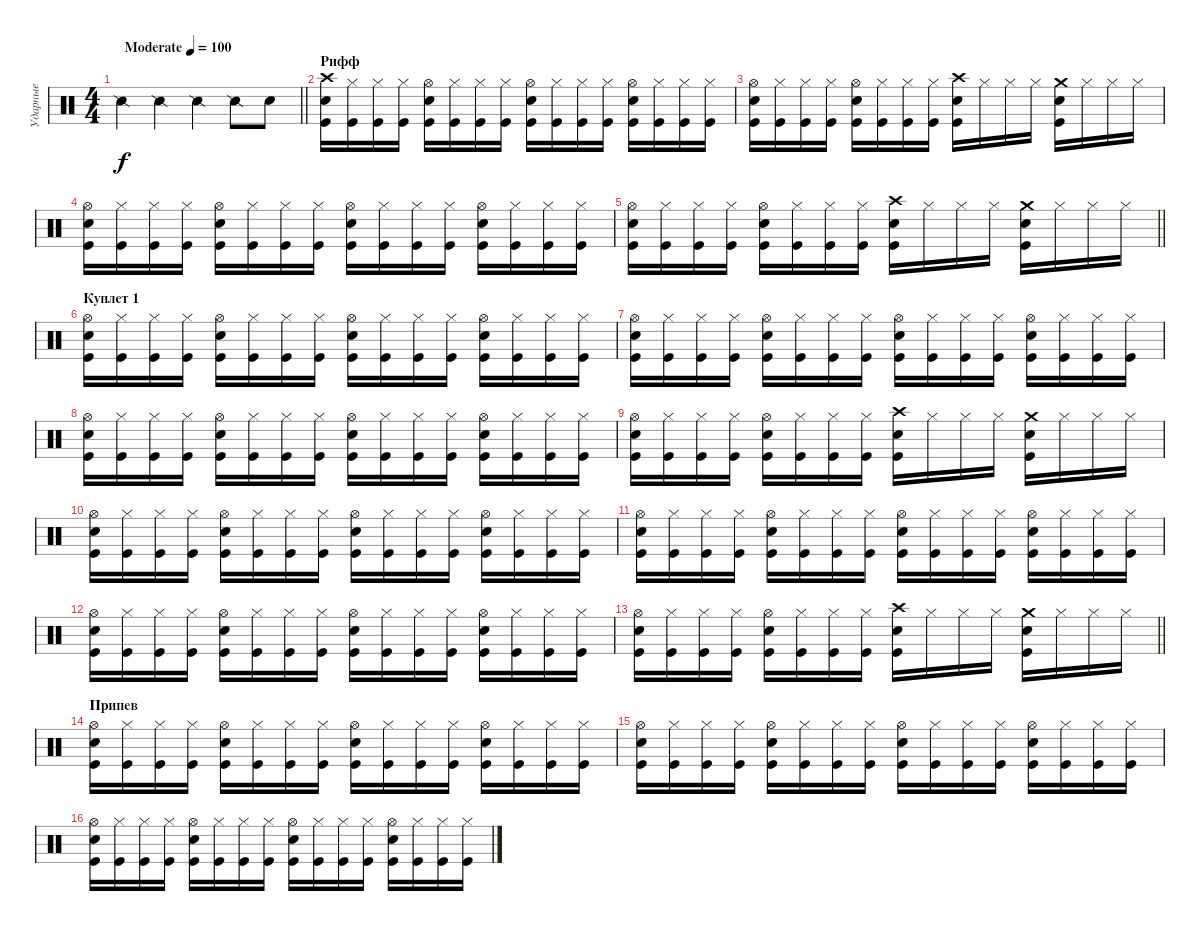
\track ("Ударные" "Ударные") {instrument percussion}
\staff {score}
\articulation defaults
\ts (4 4)
\tempo (100 "Moderate")
\clef neutral
\barLineRight lightlight
\ks c "Snare (side stick) 2".4{dy f} "Snare (side stick) 2".4 "Snare (side stick) 2".4 "Snare (side stick) 2".8 "Snare (hit) 2".8
|
\section ("" "Рифф")
("Kick (hit)" "Snare (hit) 2" "Crash high (hit)").16 ("Kick (hit)" "Hi-Hat (closed)").16 ("Kick (hit)" "Hi-Hat (closed)").16 ("Kick (hit)" "Hi-Hat (closed)").16 ("Kick (hit)" "Snare (hit) 2" "Hi-Hat (open)").16 ("Kick (hit)" "Hi-Hat (closed)").16 ("Kick (hit)" "Hi-Hat (closed)").16 ("Kick (hit)" "Hi-Hat (closed)").16 ("Kick (hit)" "Snare (hit) 2" "Hi-Hat (open)").16 ("Kick (hit)" "Hi-Hat (closed)").16 ("Kick (hit)" "Hi-Hat (closed)").16 ("Kick (hit)" "Hi-Hat (closed)").16 ("Kick (hit)" "Snare (hit) 2" "Hi-Hat (open)").16 ("Kick (hit)" "Hi-Hat (closed)").16 ("Kick (hit)" "Hi-Hat (closed)").16 ("Kick (hit)" "Hi-Hat (closed)").16 |
("Kick (hit)" "Snare (hit) 2" "Hi-Hat (open)").16 ("Kick (hit)" "Hi-Hat (closed)").16 ("Kick (hit)" "Hi-Hat (closed)").16 ("Kick (hit)" "Hi-Hat (closed)").16 ("Kick (hit)" "Snare (hit) 2" "Hi-Hat (open)").16 ("Kick (hit)" "Hi-Hat (closed)").16 ("Kick (hit)" "Hi-Hat (closed)").16 ("Kick (hit)" "Hi-Hat (closed)").16 ("Crash high (hit)" "Kick (hit)" "Snare (hit) 2").16 "Hi-Hat (closed)".16 "Hi-Hat (closed)".16 "Hi-Hat (closed)".16 ("Crash medium (hit)" "Kick (hit)" "Snare (hit) 2").16 "Hi-Hat (closed)".16 "Hi-Hat (closed)".16 "Hi-Hat (closed)".16 |
("Kick (hit)" "Snare (hit) 2" "Hi-Hat (open)").16 ("Kick (hit)" "Hi-Hat (closed)").16 ("Kick (hit)" "Hi-Hat (closed)").16 ("Kick (hit)" "Hi-Hat (closed)").16 ("Kick (hit)" "Snare (hit) 2" "Hi-Hat (open)").16 ("Kick (hit)" "Hi-Hat (closed)").16 ("Kick (hit)" "Hi-Hat (closed)").16 ("Kick (hit)" "Hi-Hat (closed)").16 ("Kick (hit)" "Snare (hit) 2" "Hi-Hat (open)").16 ("Kick (hit)" "Hi-Hat (closed)").16 ("Kick (hit)" "Hi-Hat (closed)").16 ("Kick (hit)" "Hi-Hat (closed)").16 ("Kick (hit)" "Snare (hit) 2" "Hi-Hat (open)").16 ("Kick (hit)" "Hi-Hat (closed)").16 ("Kick (hit)" "Hi-Hat (closed)").16 ("Kick (hit)" "Hi-Hat (closed)").16 |
\barLineRight lightlight
("Kick (hit)" "Snare (hit) 2" "Hi-Hat (open)").16 ("Kick (hit)" "Hi-Hat (closed)").16 ("Kick (hit)" "Hi-Hat (closed)").16 ("Kick (hit)" "Hi-Hat (closed)").16 ("Kick (hit)" "Snare (hit) 2" "Hi-Hat (open)").16 ("Kick (hit)" "Hi-Hat (closed)").16 ("Kick (hit)" "Hi-Hat (closed)").16 ("Kick (hit)" "Hi-Hat (closed)").16 ("Crash high (hit)" "Kick (hit)" "Snare (hit) 2").16 "Hi-Hat (closed)".16 "Hi-Hat (closed)".16 "Hi-Hat (closed)".16 ("Crash medium (hit)" "Kick (hit)" "Snare (hit) 2").16 "Hi-Hat (closed)".16 "Hi-Hat (closed)".16 "Hi-Hat (closed)".16 |
\section ("" "Куплет 1")
("Kick (hit)" "Snare (hit) 2" "Hi-Hat (open)").16 ("Kick (hit)" "Hi-Hat (closed)").16 ("Kick (hit)" "Hi-Hat (closed)").16 ("Kick (hit)" "Hi-Hat (closed)").16 ("Kick (hit)" "Snare (hit) 2" "Hi-Hat (open)").16 ("Kick (hit)" "Hi-Hat (closed)").16 ("Kick (hit)" "Hi-Hat (closed)").16 ("Kick (hit)" "Hi-Hat (closed)").16 ("Kick (hit)" "Snare (hit) 2" "Hi-Hat (open)").16 ("Kick (hit)" "Hi-Hat (closed)").16 ("Kick (hit)" "Hi-Hat (closed)").16 ("Kick (hit)" "Hi-Hat (closed)").16 ("Kick (hit)" "Snare (hit) 2" "Hi-Hat (open)").16 ("Kick (hit)" "Hi-Hat (closed)").16 ("Kick (hit)" "Hi-Hat (closed)").16 ("Kick (hit)" "Hi-Hat (closed)").16 |
("Kick (hit)" "Snare (hit) 2" "Hi-Hat (open)").16 ("Kick (hit)" "Hi-Hat (closed)").16 ("Kick (hit)" "Hi-Hat (closed)").16 ("Kick (hit)" "Hi-Hat (closed)").16 ("Kick (hit)" "Snare (hit) 2" "Hi-Hat (open)").16 ("Kick (hit)" "Hi-Hat (closed)").16 ("Kick (hit)" "Hi-Hat (closed)").16 ("Kick (hit)" "Hi-Hat (closed)").16 ("Kick (hit)" "Snare (hit) 2" "Hi-Hat (open)").16 ("Kick (hit)" "Hi-Hat (closed)").16 ("Kick (hit)" "Hi-Hat (closed)").16 ("Kick (hit)" "Hi-Hat (closed)").16 ("Kick (hit)" "Snare (hit) 2" "Hi-Hat (open)").16 ("Kick (hit)" "Hi-Hat (closed)").16 ("Kick (hit)" "Hi-Hat (closed)").16 ("Kick (hit)" "Hi-Hat (closed)").16 |
("Kick (hit)" "Snare (hit) 2" "Hi-Hat (open)").16 ("Kick (hit)" "Hi-Hat (closed)").16 ("Kick (hit)" "Hi-Hat (closed)").16 ("Kick (hit)" "Hi-Hat (closed)").16 ("Kick (hit)" "Snare (hit) 2" "Hi-Hat (open)").16 ("Kick (hit)" "Hi-Hat (closed)").16 ("Kick (hit)" "Hi-Hat (closed)").16 ("Kick (hit)" "Hi-Hat (closed)").16 ("Kick (hit)" "Snare (hit) 2" "Hi-Hat (open)").16 ("Kick (hit)" "Hi-Hat (closed)").16 ("Kick (hit)" "Hi-Hat (closed)").16 ("Kick (hit)" "Hi-Hat (closed)").16 ("Kick (hit)" "Snare (hit) 2" "Hi-Hat (open)").16 ("Kick (hit)" "Hi-Hat (closed)").16 ("Kick (hit)" "Hi-Hat (closed)").16 ("Kick (hit)" "Hi-Hat (closed)").16 |
("Kick (hit)" "Snare (hit) 2" "Hi-Hat (open)").16 ("Kick (hit)" "Hi-Hat (closed)").16 ("Kick (hit)" "Hi-Hat (closed)").16 ("Kick (hit)" "Hi-Hat (closed)").16 ("Kick (hit)" "Snare (hit) 2" "Hi-Hat (open)").16 ("Kick (hit)" "Hi-Hat (closed)").16 ("Kick (hit)" "Hi-Hat (closed)").16 ("Kick (hit)" "Hi-Hat (closed)").16 ("Crash high (hit)" "Kick (hit)" "Snare (hit) 2").16 "Hi-Hat (closed)".16 "Hi-Hat (closed)".16 "Hi-Hat (closed)".16 ("Crash medium (hit)" "Kick (hit)" "Snare (hit) 2").16 "Hi-Hat (closed)".16 "Hi-Hat (closed)".16 "Hi-Hat (closed)".16 |
("Kick (hit)" "Snare (hit) 2" "Hi-Hat (open)").16 ("Kick (hit)" "Hi-Hat (closed)").16 ("Kick (hit)" "Hi-Hat (closed)").16 ("Kick (hit)" "Hi-Hat (closed)").16 ("Kick (hit)" "Snare (hit) 2" "Hi-Hat (open)").16 ("Kick (hit)" "Hi-Hat (closed)").16 ("Kick (hit)" "Hi-Hat (closed)").16 ("Kick (hit)" "Hi-Hat (closed)").16 ("Kick (hit)" "Snare (hit) 2" "Hi-Hat (open)").16 ("Kick (hit)" "Hi-Hat (closed)").16 ("Kick (hit)" "Hi-Hat (closed)").16 ("Kick (hit)" "Hi-Hat (closed)").16 ("Kick (hit)" "Snare (hit) 2" "Hi-Hat (open)").16 ("Kick (hit)" "Hi-Hat (closed)").16 ("Kick (hit)" "Hi-Hat (closed)").16 ("Kick (hit)" "Hi-Hat (closed)").16 |
("Kick (hit)" "Snare (hit) 2" "Hi-Hat (open)").16 ("Kick (hit)" "Hi-Hat (closed)").16 ("Kick (hit)" "Hi-Hat (closed)").16 ("Kick (hit)" "Hi-Hat (closed)").16 ("Kick (hit)" "Snare (hit) 2" "Hi-Hat (open)").16 ("Kick (hit)" "Hi-Hat (closed)").16 ("Kick (hit)" "Hi-Hat (closed)").16 ("Kick (hit)" "Hi-Hat (closed)").16 ("Kick (hit)" "Snare (hit) 2" "Hi-Hat (open)").16 ("Kick (hit)" "Hi-Hat (closed)").16 ("Kick (hit)" "Hi-Hat (closed)").16 ("Kick (hit)" "Hi-Hat (closed)").16 ("Kick (hit)" "Snare (hit) 2" "Hi-Hat (open)").16 ("Kick (hit)" "Hi-Hat (closed)").16 ("Kick (hit)" "Hi-Hat (closed)").16 ("Kick (hit)" "Hi-Hat (closed)").16 |
("Kick (hit)" "Snare (hit) 2" "Hi-Hat (open)").16 ("Kick (hit)" "Hi-Hat (closed)").16 ("Kick (hit)" "Hi-Hat (closed)").16 ("Kick (hit)" "Hi-Hat (closed)").16 ("Kick (hit)" "Snare (hit) 2" "Hi-Hat (open)").16 ("Kick (hit)" "Hi-Hat (closed)").16 ("Kick (hit)" "Hi-Hat (closed)").16 ("Kick (hit)" "Hi-Hat (closed)").16 ("Kick (hit)" "Snare (hit) 2" "Hi-Hat (open)").16 ("Kick (hit)" "Hi-Hat (closed)").16 ("Kick (hit)" "Hi-Hat (closed)").16 ("Kick (hit)" "Hi-Hat (closed)").16 ("Kick (hit)" "Snare (hit) 2" "Hi-Hat (open)").16 ("Kick (hit)" "Hi-Hat (closed)").16 ("Kick (hit)" "Hi-Hat (closed)").16 ("Kick (hit)" "Hi-Hat (closed)").16 |
\barLineRight lightlight
("Kick (hit)" "Snare (hit) 2" "Hi-Hat (open)").16 ("Kick (hit)" "Hi-Hat (closed)").16 ("Kick (hit)" "Hi-Hat (closed)").16 ("Kick (hit)" "Hi-Hat (closed)").16 ("Kick (hit)" "Snare (hit) 2" "Hi-Hat (open)").16 ("Kick (hit)" "Hi-Hat (closed)").16 ("Kick (hit)" "Hi-Hat (closed)").16 ("Kick (hit)" "Hi-Hat (closed)").16 ("Crash high (hit)" "Kick (hit)" "Snare (hit) 2").16 "Hi-Hat (closed)".16 "Hi-Hat (closed)".16 "Hi-Hat (closed)".16 ("Crash medium (hit)" "Kick (hit)" "Snare (hit) 2").16 "Hi-Hat (closed)".16 "Hi-Hat (closed)".16 "Hi-Hat (closed)".16 |
\section ("" "Припев")
("Kick (hit)" "Snare (hit) 2" "Hi-Hat (open)").16 ("Kick (hit)" "Hi-Hat (closed)").16 ("Kick (hit)" "Hi-Hat (closed)").16 ("Kick (hit)" "Hi-Hat (closed)").16 ("Kick (hit)" "Snare (hit) 2" "Hi-Hat (open)").16 ("Kick (hit)" "Hi-Hat (closed)").16 ("Kick (hit)" "Hi-Hat (closed)").16 ("Kick (hit)" "Hi-Hat (closed)").16 ("Kick (hit)" "Snare (hit) 2" "Hi-Hat (open)").16 ("Kick (hit)" "Hi-Hat (closed)").16 ("Kick (hit)" "Hi-Hat (closed)").16 ("Kick (hit)" "Hi-Hat (closed)").16 ("Kick (hit)" "Snare (hit) 2" "Hi-Hat (open)").16 ("Kick (hit)" "Hi-Hat (closed)").16 ("Kick (hit)" "Hi-Hat (closed)").16 ("Kick (hit)" "Hi-Hat (closed)").16 |
("Kick (hit)" "Snare (hit) 2" "Hi-Hat (open)").16 ("Kick (hit)" "Hi-Hat (closed)").16 ("Kick (hit)" "Hi-Hat (closed)").16 ("Kick (hit)" "Hi-Hat (closed)").16 ("Kick (hit)" "Snare (hit) 2" "Hi-Hat (open)").16 ("Kick (hit)" "Hi-Hat (closed)").16 ("Kick (hit)" "Hi-Hat (closed)").16 ("Kick (hit)" "Hi-Hat (closed)").16 ("Kick (hit)" "Snare (hit) 2" "Hi-Hat (open)").16 ("Kick (hit)" "Hi-Hat (closed)").16 ("Kick (hit)" "Hi-Hat (closed)").16 ("Kick (hit)" "Hi-Hat (closed)").16 ("Kick (hit)" "Snare (hit) 2" "Hi-Hat (open)").16 ("Kick (hit)" "Hi-Hat (closed)").16 ("Kick (hit)" "Hi-Hat (closed)").16 ("Kick (hit)" "Hi-Hat (closed)").16 |
("Kick (hit)" "Snare (hit) 2" "Hi-Hat (open)").16 ("Kick (hit)" "Hi-Hat (closed)").16 ("Kick (hit)" "Hi-Hat (closed)").16 ("Kick (hit)" "Hi-Hat (closed)").16 ("Kick (hit)" "Snare (hit) 2" "Hi-Hat (open)").16 ("Kick (hit)" "Hi-Hat (closed)").16 ("Kick (hit)" "Hi-Hat (closed)").16 ("Kick (hit)" "Hi-Hat (closed)").16 ("Kick (hit)" "Snare (hit) 2" "Hi-Hat (open)").16 ("Kick (hit)" "Hi-Hat (closed)").16 ("Kick (hit)" "Hi-Hat (closed)").16 ("Kick (hit)" "Hi-Hat (closed)").16 ("Kick (hit)" "Snare (hit) 2" "Hi-Hat (open)").16 ("Kick (hit)" "Hi-Hat (closed)").16 ("Kick (hit)" "Hi-Hat (closed)").16 ("Kick (hit)" "Hi-Hat (closed)").16
